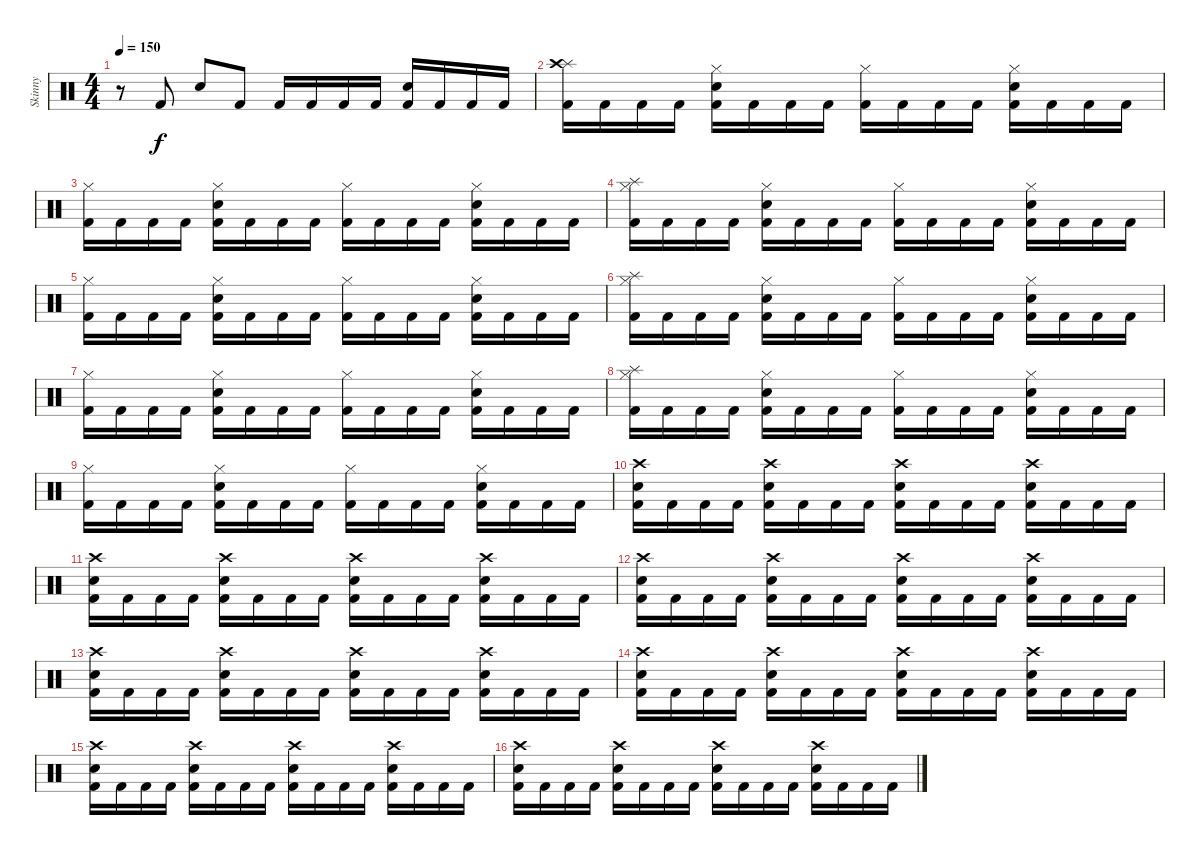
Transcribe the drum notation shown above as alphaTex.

\track ("Skinny" "Skinny") {instrument percussion}
\staff {score}
\articulation defaults
\ts (4 4)
\tempo 150
\clef neutral
\ks c
r.8{dy f} "Kick (hit) 2".8 "Electric Snare (hit)".8 "Kick (hit) 2".8 "Kick (hit) 2".16 "Kick (hit) 2".16 "Kick (hit) 2".16 "Kick (hit) 2".16 ("Electric Snare (hit)" "Kick (hit) 2").16 "Kick (hit) 2".16 "Kick (hit) 2".16 "Kick (hit) 2".16 |
("Splash (hit)" "Crash high (hit)" "Kick (hit) 2").16 "Kick (hit) 2".16 "Kick (hit) 2".16 "Kick (hit) 2".16 ("Hi-Hat (closed)" "Electric Snare (hit)" "Kick (hit) 2").16 "Kick (hit) 2".16 "Kick (hit) 2".16 "Kick (hit) 2".16 ("Hi-Hat (closed)" "Kick (hit) 2").16 "Kick (hit) 2".16 "Kick (hit) 2".16 "Kick (hit) 2".16 ("Hi-Hat (closed)" "Electric Snare (hit)" "Kick (hit) 2").16 "Kick (hit) 2".16 "Kick (hit) 2".16 "Kick (hit) 2".16 |
("Hi-Hat (closed)" "Kick (hit) 2").16 "Kick (hit) 2".16 "Kick (hit) 2".16 "Kick (hit) 2".16 ("Hi-Hat (closed)" "Electric Snare (hit)" "Kick (hit) 2").16 "Kick (hit) 2".16 "Kick (hit) 2".16 "Kick (hit) 2".16 ("Hi-Hat (closed)" "Kick (hit) 2").16 "Kick (hit) 2".16 "Kick (hit) 2".16 "Kick (hit) 2".16 ("Hi-Hat (closed)" "Electric Snare (hit)" "Kick (hit) 2").16 "Kick (hit) 2".16 "Kick (hit) 2".16 "Kick (hit) 2".16 |
("Splash (hit)" "Hi-Hat (closed)" "Kick (hit) 2").16 "Kick (hit) 2".16 "Kick (hit) 2".16 "Kick (hit) 2".16 ("Hi-Hat (closed)" "Electric Snare (hit)" "Kick (hit) 2").16 "Kick (hit) 2".16 "Kick (hit) 2".16 "Kick (hit) 2".16 ("Hi-Hat (closed)" "Kick (hit) 2").16 "Kick (hit) 2".16 "Kick (hit) 2".16 "Kick (hit) 2".16 ("Hi-Hat (closed)" "Electric Snare (hit)" "Kick (hit) 2").16 "Kick (hit) 2".16 "Kick (hit) 2".16 "Kick (hit) 2".16 |
("Hi-Hat (closed)" "Kick (hit) 2").16 "Kick (hit) 2".16 "Kick (hit) 2".16 "Kick (hit) 2".16 ("Hi-Hat (closed)" "Electric Snare (hit)" "Kick (hit) 2").16 "Kick (hit) 2".16 "Kick (hit) 2".16 "Kick (hit) 2".16 ("Hi-Hat (closed)" "Kick (hit) 2").16 "Kick (hit) 2".16 "Kick (hit) 2".16 "Kick (hit) 2".16 ("Hi-Hat (closed)" "Electric Snare (hit)" "Kick (hit) 2").16 "Kick (hit) 2".16 "Kick (hit) 2".16 "Kick (hit) 2".16 |
("Splash (hit)" "Hi-Hat (closed)" "Kick (hit) 2").16 "Kick (hit) 2".16 "Kick (hit) 2".16 "Kick (hit) 2".16 ("Hi-Hat (closed)" "Electric Snare (hit)" "Kick (hit) 2").16 "Kick (hit) 2".16 "Kick (hit) 2".16 "Kick (hit) 2".16 ("Hi-Hat (closed)" "Kick (hit) 2").16 "Kick (hit) 2".16 "Kick (hit) 2".16 "Kick (hit) 2".16 ("Hi-Hat (closed)" "Electric Snare (hit)" "Kick (hit) 2").16 "Kick (hit) 2".16 "Kick (hit) 2".16 "Kick (hit) 2".16 |
("Hi-Hat (closed)" "Kick (hit) 2").16 "Kick (hit) 2".16 "Kick (hit) 2".16 "Kick (hit) 2".16 ("Hi-Hat (closed)" "Electric Snare (hit)" "Kick (hit) 2").16 "Kick (hit) 2".16 "Kick (hit) 2".16 "Kick (hit) 2".16 ("Hi-Hat (closed)" "Kick (hit) 2").16 "Kick (hit) 2".16 "Kick (hit) 2".16 "Kick (hit) 2".16 ("Hi-Hat (closed)" "Electric Snare (hit)" "Kick (hit) 2").16 "Kick (hit) 2".16 "Kick (hit) 2".16 "Kick (hit) 2".16 |
("Splash (hit)" "Hi-Hat (closed)" "Kick (hit) 2").16 "Kick (hit) 2".16 "Kick (hit) 2".16 "Kick (hit) 2".16 ("Hi-Hat (closed)" "Electric Snare (hit)" "Kick (hit) 2").16 "Kick (hit) 2".16 "Kick (hit) 2".16 "Kick (hit) 2".16 ("Hi-Hat (closed)" "Kick (hit) 2").16 "Kick (hit) 2".16 "Kick (hit) 2".16 "Kick (hit) 2".16 ("Hi-Hat (closed)" "Electric Snare (hit)" "Kick (hit) 2").16 "Kick (hit) 2".16 "Kick (hit) 2".16 "Kick (hit) 2".16 |
("Hi-Hat (closed)" "Kick (hit) 2").16 "Kick (hit) 2".16 "Kick (hit) 2".16 "Kick (hit) 2".16 ("Hi-Hat (closed)" "Electric Snare (hit)" "Kick (hit) 2").16 "Kick (hit) 2".16 "Kick (hit) 2".16 "Kick (hit) 2".16 ("Hi-Hat (closed)" "Kick (hit) 2").16 "Kick (hit) 2".16 "Kick (hit) 2".16 "Kick (hit) 2".16 ("Hi-Hat (closed)" "Electric Snare (hit)" "Kick (hit) 2").16 "Kick (hit) 2".16 "Kick (hit) 2".16 "Kick (hit) 2".16 |
("Crash high (hit)" "Electric Snare (hit)" "Kick (hit) 2").16 "Kick (hit) 2".16 "Kick (hit) 2".16 "Kick (hit) 2".16 ("Crash high (hit)" "Electric Snare (hit)" "Kick (hit) 2").16 "Kick (hit) 2".16 "Kick (hit) 2".16 "Kick (hit) 2".16 ("Crash high (hit)" "Electric Snare (hit)" "Kick (hit) 2").16 "Kick (hit) 2".16 "Kick (hit) 2".16 "Kick (hit) 2".16 ("Crash high (hit)" "Electric Snare (hit)" "Kick (hit) 2").16 "Kick (hit) 2".16 "Kick (hit) 2".16 "Kick (hit) 2".16 |
("Crash high (hit)" "Electric Snare (hit)" "Kick (hit) 2").16 "Kick (hit) 2".16 "Kick (hit) 2".16 "Kick (hit) 2".16 ("Crash high (hit)" "Electric Snare (hit)" "Kick (hit) 2").16 "Kick (hit) 2".16 "Kick (hit) 2".16 "Kick (hit) 2".16 ("Crash high (hit)" "Electric Snare (hit)" "Kick (hit) 2").16 "Kick (hit) 2".16 "Kick (hit) 2".16 "Kick (hit) 2".16 ("Crash high (hit)" "Electric Snare (hit)" "Kick (hit) 2").16 "Kick (hit) 2".16 "Kick (hit) 2".16 "Kick (hit) 2".16 |
("Crash high (hit)" "Electric Snare (hit)" "Kick (hit) 2").16 "Kick (hit) 2".16 "Kick (hit) 2".16 "Kick (hit) 2".16 ("Crash high (hit)" "Electric Snare (hit)" "Kick (hit) 2").16 "Kick (hit) 2".16 "Kick (hit) 2".16 "Kick (hit) 2".16 ("Crash high (hit)" "Electric Snare (hit)" "Kick (hit) 2").16 "Kick (hit) 2".16 "Kick (hit) 2".16 "Kick (hit) 2".16 ("Crash high (hit)" "Electric Snare (hit)" "Kick (hit) 2").16 "Kick (hit) 2".16 "Kick (hit) 2".16 "Kick (hit) 2".16 |
("Crash high (hit)" "Electric Snare (hit)" "Kick (hit) 2").16 "Kick (hit) 2".16 "Kick (hit) 2".16 "Kick (hit) 2".16 ("Crash high (hit)" "Electric Snare (hit)" "Kick (hit) 2").16 "Kick (hit) 2".16 "Kick (hit) 2".16 "Kick (hit) 2".16 ("Crash high (hit)" "Electric Snare (hit)" "Kick (hit) 2").16 "Kick (hit) 2".16 "Kick (hit) 2".16 "Kick (hit) 2".16 ("Crash high (hit)" "Electric Snare (hit)" "Kick (hit) 2").16 "Kick (hit) 2".16 "Kick (hit) 2".16 "Kick (hit) 2".16 |
("Crash high (hit)" "Electric Snare (hit)" "Kick (hit) 2").16 "Kick (hit) 2".16 "Kick (hit) 2".16 "Kick (hit) 2".16 ("Crash high (hit)" "Electric Snare (hit)" "Kick (hit) 2").16 "Kick (hit) 2".16 "Kick (hit) 2".16 "Kick (hit) 2".16 ("Crash high (hit)" "Electric Snare (hit)" "Kick (hit) 2").16 "Kick (hit) 2".16 "Kick (hit) 2".16 "Kick (hit) 2".16 ("Crash high (hit)" "Electric Snare (hit)" "Kick (hit) 2").16 "Kick (hit) 2".16 "Kick (hit) 2".16 "Kick (hit) 2".16 |
("Crash high (hit)" "Electric Snare (hit)" "Kick (hit) 2").16 "Kick (hit) 2".16 "Kick (hit) 2".16 "Kick (hit) 2".16 ("Crash high (hit)" "Electric Snare (hit)" "Kick (hit) 2").16 "Kick (hit) 2".16 "Kick (hit) 2".16 "Kick (hit) 2".16 ("Crash high (hit)" "Electric Snare (hit)" "Kick (hit) 2").16 "Kick (hit) 2".16 "Kick (hit) 2".16 "Kick (hit) 2".16 ("Crash high (hit)" "Electric Snare (hit)" "Kick (hit) 2").16 "Kick (hit) 2".16 "Kick (hit) 2".16 "Kick (hit) 2".16 |
("Crash high (hit)" "Electric Snare (hit)" "Kick (hit) 2").16 "Kick (hit) 2".16 "Kick (hit) 2".16 "Kick (hit) 2".16 ("Crash high (hit)" "Electric Snare (hit)" "Kick (hit) 2").16 "Kick (hit) 2".16 "Kick (hit) 2".16 "Kick (hit) 2".16 ("Crash high (hit)" "Electric Snare (hit)" "Kick (hit) 2").16 "Kick (hit) 2".16 "Kick (hit) 2".16 "Kick (hit) 2".16 ("Crash high (hit)" "Electric Snare (hit)" "Kick (hit) 2").16 "Kick (hit) 2".16 "Kick (hit) 2".16 "Kick (hit) 2".16
